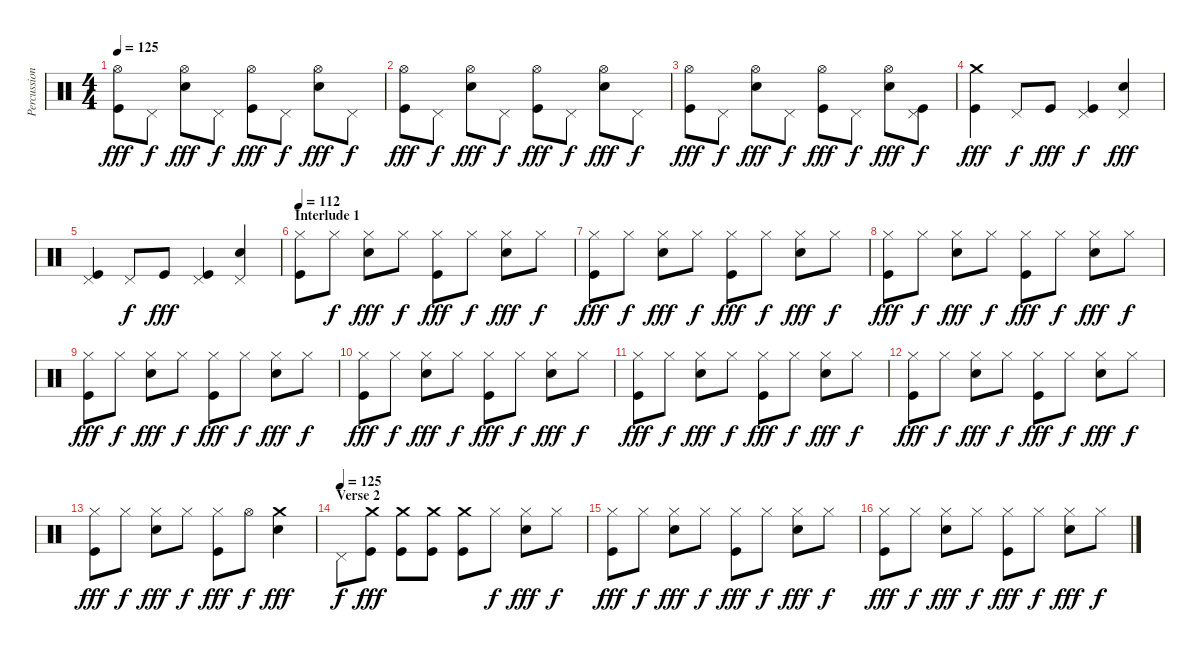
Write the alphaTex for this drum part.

\track ("Percussion" "Percussion") {instrument percussion}
\staff {score}
\articulation defaults
\ts (4 4)
\tempo 125
\clef neutral
\ks c
("Kick (hit)" "Hi-Hat (open)").8{dy fff} "Pedal Hi-Hat (hit)".8{dy f} ("Snare (hit) 2" "Hi-Hat (open)").8{dy fff} "Pedal Hi-Hat (hit)".8{dy f} ("Kick (hit)" "Hi-Hat (open)").8{dy fff} "Pedal Hi-Hat (hit)".8{dy f} ("Snare (hit) 2" "Hi-Hat (open)").8{dy fff} "Pedal Hi-Hat (hit)".8{dy f} |
("Kick (hit)" "Hi-Hat (open)").8{dy fff} "Pedal Hi-Hat (hit)".8{dy f} ("Snare (hit) 2" "Hi-Hat (open)").8{dy fff} "Pedal Hi-Hat (hit)".8{dy f} ("Kick (hit)" "Hi-Hat (open)").8{dy fff} "Pedal Hi-Hat (hit)".8{dy f} ("Snare (hit) 2" "Hi-Hat (open)").8{dy fff} "Pedal Hi-Hat (hit)".8{dy f} |
("Kick (hit)" "Hi-Hat (open)").8{dy fff} "Pedal Hi-Hat (hit)".8{dy f} ("Snare (hit) 2" "Hi-Hat (open)").8{dy fff} "Pedal Hi-Hat (hit)".8{dy f} ("Kick (hit)" "Hi-Hat (open)").8{dy fff} "Pedal Hi-Hat (hit)".8{dy f} ("Snare (hit) 2" "Hi-Hat (open)").8{dy fff} ("Kick (hit)" "Pedal Hi-Hat (hit)").8{dy f} |
("Kick (hit)" "Crash medium (hit)").4{dy fff} "Pedal Hi-Hat (hit)".8{dy f} "Kick (hit)".8{dy fff} ("Kick (hit)" "Pedal Hi-Hat (hit)").4{dy f} ("Snare (hit) 2" "Pedal Hi-Hat (hit)").4{dy fff} |
("Kick (hit)" "Pedal Hi-Hat (hit)").4 "Pedal Hi-Hat (hit)".8{dy f} "Kick (hit)".8{dy fff} ("Kick (hit)" "Pedal Hi-Hat (hit)").4 ("Snare (hit) 2" "Pedal Hi-Hat (hit)").4 |
\section ("" "Interlude 1")
\tempo 112
("Kick (hit)" "Hi-Hat (closed)").8 "Hi-Hat (closed)".8{dy f} ("Snare (hit) 2" "Hi-Hat (closed)").8{dy fff} "Hi-Hat (closed)".8{dy f} ("Kick (hit)" "Hi-Hat (closed)").8{dy fff} "Hi-Hat (closed)".8{dy f} ("Snare (hit) 2" "Hi-Hat (closed)").8{dy fff} "Hi-Hat (closed)".8{dy f} |
("Kick (hit)" "Hi-Hat (closed)").8{dy fff} "Hi-Hat (closed)".8{dy f} ("Snare (hit) 2" "Hi-Hat (closed)").8{dy fff} "Hi-Hat (closed)".8{dy f} ("Kick (hit)" "Hi-Hat (closed)").8{dy fff} "Hi-Hat (closed)".8{dy f} ("Snare (hit) 2" "Hi-Hat (closed)").8{dy fff} "Hi-Hat (closed)".8{dy f} |
("Kick (hit)" "Hi-Hat (closed)").8{dy fff} "Hi-Hat (closed)".8{dy f} ("Snare (hit) 2" "Hi-Hat (closed)").8{dy fff} "Hi-Hat (closed)".8{dy f} ("Kick (hit)" "Hi-Hat (closed)").8{dy fff} "Hi-Hat (closed)".8{dy f} ("Snare (hit) 2" "Hi-Hat (closed)").8{dy fff} "Hi-Hat (closed)".8{dy f} |
("Kick (hit)" "Hi-Hat (closed)").8{dy fff} "Hi-Hat (closed)".8{dy f} ("Snare (hit) 2" "Hi-Hat (closed)").8{dy fff} "Hi-Hat (closed)".8{dy f} ("Kick (hit)" "Hi-Hat (closed)").8{dy fff} "Hi-Hat (closed)".8{dy f} ("Snare (hit) 2" "Hi-Hat (closed)").8{dy fff} "Hi-Hat (closed)".8{dy f} |
("Kick (hit)" "Hi-Hat (closed)").8{dy fff} "Hi-Hat (closed)".8{dy f} ("Snare (hit) 2" "Hi-Hat (closed)").8{dy fff} "Hi-Hat (closed)".8{dy f} ("Kick (hit)" "Hi-Hat (closed)").8{dy fff} "Hi-Hat (closed)".8{dy f} ("Snare (hit) 2" "Hi-Hat (closed)").8{dy fff} "Hi-Hat (closed)".8{dy f} |
("Kick (hit)" "Hi-Hat (closed)").8{dy fff} "Hi-Hat (closed)".8{dy f} ("Snare (hit) 2" "Hi-Hat (closed)").8{dy fff} "Hi-Hat (closed)".8{dy f} ("Kick (hit)" "Hi-Hat (closed)").8{dy fff} "Hi-Hat (closed)".8{dy f} ("Snare (hit) 2" "Hi-Hat (closed)").8{dy fff} "Hi-Hat (closed)".8{dy f} |
("Kick (hit)" "Hi-Hat (closed)").8{dy fff} "Hi-Hat (closed)".8{dy f} ("Snare (hit) 2" "Hi-Hat (closed)").8{dy fff} "Hi-Hat (closed)".8{dy f} ("Kick (hit)" "Hi-Hat (closed)").8{dy fff} "Hi-Hat (closed)".8{dy f} ("Snare (hit) 2" "Hi-Hat (closed)").8{dy fff} "Hi-Hat (closed)".8{dy f} |
("Kick (hit)" "Hi-Hat (closed)").8{dy fff} "Hi-Hat (closed)".8{dy f} ("Snare (hit) 2" "Hi-Hat (closed)").8{dy fff} "Hi-Hat (closed)".8{dy f} ("Kick (hit)" "Hi-Hat (closed)").8{dy fff} "Hi-Hat (open)".8{dy f} ("Snare (hit) 2" "Crash medium (hit)").4{dy fff} |
\section ("" "Verse 2")
\tempo (125)
"Pedal Hi-Hat (hit)".8{dy f} ("Kick (hit)" "Crash medium (hit)").8{dy fff} ("Kick (hit)" "Crash medium (hit)").8 ("Kick (hit)" "Crash medium (hit)").8 ("Kick (hit)" "Crash medium (hit)").8 "Hi-Hat (closed)".8{dy f} ("Snare (hit) 2" "Hi-Hat (closed)").8{dy fff} "Hi-Hat (closed)".8{dy f} |
("Kick (hit)" "Hi-Hat (closed)").8{dy fff} "Hi-Hat (closed)".8{dy f} ("Snare (hit) 2" "Hi-Hat (closed)").8{dy fff} "Hi-Hat (closed)".8{dy f} ("Kick (hit)" "Hi-Hat (closed)").8{dy fff} "Hi-Hat (closed)".8{dy f} ("Snare (hit) 2" "Hi-Hat (closed)").8{dy fff} "Hi-Hat (closed)".8{dy f} |
("Kick (hit)" "Hi-Hat (closed)").8{dy fff} "Hi-Hat (closed)".8{dy f} ("Snare (hit) 2" "Hi-Hat (closed)").8{dy fff} "Hi-Hat (closed)".8{dy f} ("Kick (hit)" "Hi-Hat (closed)").8{dy fff} "Hi-Hat (closed)".8{dy f} ("Snare (hit) 2" "Hi-Hat (closed)").8{dy fff} "Hi-Hat (closed)".8{dy f}
